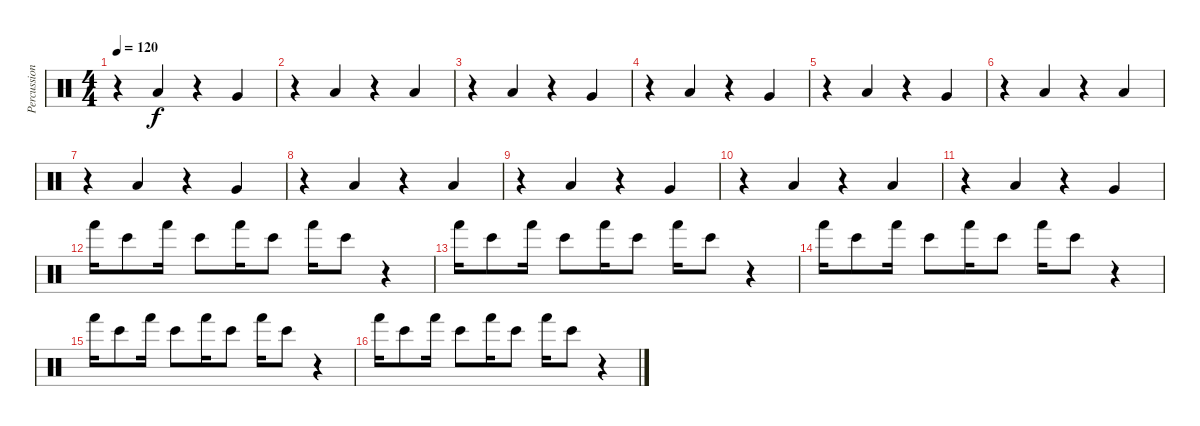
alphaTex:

\track ("Percussion" "Percussion") {instrument percussion}
\staff {score}
\articulation defaults
\ts (4 4)
\tempo 120
\clef neutral
\ks c
r.4{dy f} "Low Floor Tom (hit)".4 r.4 "Very Low Tom (hit)".4 |
r.4 "Low Floor Tom (hit)".4 r.4 "Low Floor Tom (hit)".4 |
r.4 "Low Floor Tom (hit)".4 r.4 "Very Low Tom (hit)".4 |
r.4 "Low Floor Tom (hit)".4 r.4 "Very Low Tom (hit)".4 |
r.4 "Low Floor Tom (hit)".4 r.4 "Very Low Tom (hit)".4 |
r.4 "Low Floor Tom (hit)".4 r.4 "Low Floor Tom (hit)".4 |
r.4 "Low Floor Tom (hit)".4 r.4 "Very Low Tom (hit)".4 |
r.4 "Low Floor Tom (hit)".4 r.4 "Low Floor Tom (hit)".4 |
r.4 "Low Floor Tom (hit)".4 r.4 "Very Low Tom (hit)".4 |
r.4 "Low Floor Tom (hit)".4 r.4 "Low Floor Tom (hit)".4 |
r.4 "Low Floor Tom (hit)".4 r.4 "Very Low Tom (hit)".4 |
"Hand (hit)".16 "Bongo High (hit)".8 "Hand (hit)".16 "Bongo High (hit)".8 "Hand (hit)".16 "Bongo High (hit)".8 "Hand (hit)".16 "Bongo High (hit)".8 r.4 |
"Hand (hit)".16 "Bongo High (hit)".8 "Hand (hit)".16 "Bongo High (hit)".8 "Hand (hit)".16 "Bongo High (hit)".8 "Hand (hit)".16 "Bongo High (hit)".8 r.4 |
"Hand (hit)".16 "Bongo High (hit)".8 "Hand (hit)".16 "Bongo High (hit)".8 "Hand (hit)".16 "Bongo High (hit)".8 "Hand (hit)".16 "Bongo High (hit)".8 r.4 |
"Hand (hit)".16 "Bongo High (hit)".8 "Hand (hit)".16 "Bongo High (hit)".8 "Hand (hit)".16 "Bongo High (hit)".8 "Hand (hit)".16 "Bongo High (hit)".8 r.4 |
"Hand (hit)".16 "Bongo High (hit)".8 "Hand (hit)".16 "Bongo High (hit)".8 "Hand (hit)".16 "Bongo High (hit)".8 "Hand (hit)".16 "Bongo High (hit)".8 r.4
